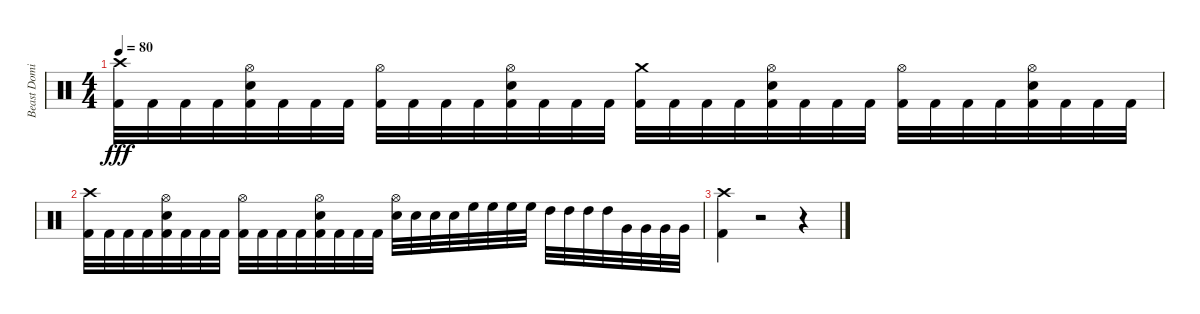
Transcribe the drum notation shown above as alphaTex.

\track ("Beast Dominator" "Beast Domi") {instrument percussion}
\staff {score}
\articulation defaults
\ts (4 4)
\tempo 80
\clef neutral
\ks c
("Crash high (hit)" "Kick (hit) 2").32{dy fff} "Kick (hit) 2".32 "Kick (hit) 2".32 "Kick (hit) 2".32 ("Hi-Hat (open)" "Snare (hit) 2" "Kick (hit) 2").32 "Kick (hit) 2".32 "Kick (hit) 2".32 "Kick (hit) 2".32 ("Hi-Hat (open)" "Kick (hit) 2").32 "Kick (hit) 2".32 "Kick (hit) 2".32 "Kick (hit) 2".32 ("Hi-Hat (open)" "Snare (hit) 2" "Kick (hit) 2").32 "Kick (hit) 2".32 "Kick (hit) 2".32 "Kick (hit) 2".32 ("Crash medium (hit)" "Kick (hit) 2").32 "Kick (hit) 2".32 "Kick (hit) 2".32 "Kick (hit) 2".32 ("Hi-Hat (open)" "Snare (hit) 2" "Kick (hit) 2").32 "Kick (hit) 2".32 "Kick (hit) 2".32 "Kick (hit) 2".32 ("Hi-Hat (open)" "Kick (hit) 2").32 "Kick (hit) 2".32 "Kick (hit) 2".32 "Kick (hit) 2".32 ("Hi-Hat (open)" "Snare (hit) 2" "Kick (hit) 2").32 "Kick (hit) 2".32 "Kick (hit) 2".32 "Kick (hit) 2".32 |
("Crash high (hit)" "Kick (hit) 2").32 "Kick (hit) 2".32 "Kick (hit) 2".32 "Kick (hit) 2".32 ("Hi-Hat (open)" "Snare (hit) 2" "Kick (hit) 2").32 "Kick (hit) 2".32 "Kick (hit) 2".32 "Kick (hit) 2".32 ("Hi-Hat (open)" "Kick (hit) 2").32 "Kick (hit) 2".32 "Kick (hit) 2".32 "Kick (hit) 2".32 ("Hi-Hat (open)" "Snare (hit) 2" "Kick (hit) 2").32 "Kick (hit) 2".32 "Kick (hit) 2".32 "Kick (hit) 2".32 ("Hi-Hat (open)" "Snare (hit) 2").32 "Snare (hit) 2".32 "Snare (hit) 2".32 "Snare (hit) 2".32 "High Floor Tom (hit)".32 "High Floor Tom (hit)".32 "High Floor Tom (hit)".32 "High Floor Tom (hit)".32 "High Tom (hit)".32 "High Tom (hit)".32 "High Tom (hit)".32 "High Tom (hit)".32 "Very Low Tom (hit)".32 "Very Low Tom (hit)".32 "Very Low Tom (hit)".32 "Very Low Tom (hit)".32 |
("Crash high (hit)" "Kick (hit) 2").4 r.2 r.4
